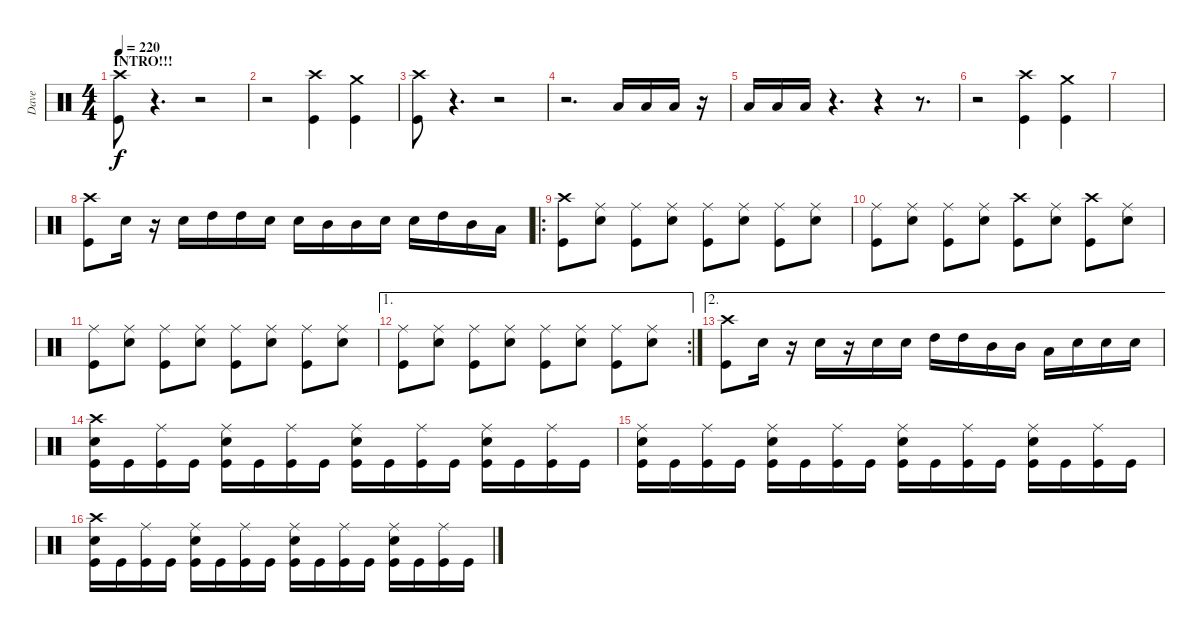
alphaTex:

\track ("Dave" "Dave") {instrument percussion}
\staff {score}
\articulation defaults
\ts (4 4)
\section ("" "INTRO!!!")
\tempo 220
\clef neutral
\ks c
("Crash high (hit)" "Kick (hit)").8{dy f} r.4{d} r.2 |
r.2 ("Crash high (hit)" "Kick (hit)").4 ("Crash medium (hit)" "Kick (hit)").4 |
("Crash high (hit)" "Kick (hit)").8 r.4{d} r.2 |
r.2{d} "Low Floor Tom (hit)".16 "Low Floor Tom (hit)".16 "Low Floor Tom (hit)".16 r.16 |
"Low Floor Tom (hit)".16 "Low Floor Tom (hit)".16 "Low Floor Tom (hit)".16 r.4{d} r.4 r.8{d} |
r.2 ("Crash high (hit)" "Kick (hit)").4 ("Crash medium (hit)" "Kick (hit)").4 |
|
("Crash high (hit)" "Kick (hit)").8 "Snare (hit) 2".16 r.16 "Snare (hit) 2".16 "High Tom (hit)".16 "High Tom (hit)".16 "Snare (hit) 2".16 "Snare (hit) 2".16 "Mid Tom (hit)".16 "Mid Tom (hit)".16 "Snare (hit) 2".16 "Snare (hit) 2".16 "High Tom (hit)".16 "Mid Tom (hit)".16 "Low Tom (hit)".16 |
\ro
("Crash high (hit)" "Kick (hit)").8 ("Ride (middle)" "Snare (hit) 2").8 ("Ride (middle)" "Kick (hit)").8 ("Ride (middle)" "Snare (hit) 2").8 ("Ride (middle)" "Kick (hit)").8 ("Ride (middle)" "Snare (hit) 2").8 ("Ride (middle)" "Kick (hit)").8 ("Ride (middle)" "Snare (hit) 2").8 |
("Ride (middle)" "Kick (hit)").8 ("Ride (middle)" "Snare (hit) 2").8 ("Ride (middle)" "Kick (hit)").8 ("Ride (middle)" "Snare (hit) 2").8 ("Crash high (hit)" "Kick (hit)").8 ("Ride (middle)" "Snare (hit) 2").8 ("Crash high (hit)" "Kick (hit)").8 ("Ride (middle)" "Snare (hit) 2").8 |
("Ride (middle)" "Kick (hit)").8 ("Ride (middle)" "Snare (hit) 2").8 ("Ride (middle)" "Kick (hit)").8 ("Ride (middle)" "Snare (hit) 2").8 ("Ride (middle)" "Kick (hit)").8 ("Ride (middle)" "Snare (hit) 2").8 ("Ride (middle)" "Kick (hit)").8 ("Ride (middle)" "Snare (hit) 2").8 |
\ae 1
\rc 2
("Ride (middle)" "Kick (hit)").8 ("Ride (middle)" "Snare (hit) 2").8 ("Ride (middle)" "Kick (hit)").8 ("Ride (middle)" "Snare (hit) 2").8 ("Ride (middle)" "Kick (hit)").8 ("Ride (middle)" "Snare (hit) 2").8 ("Ride (middle)" "Kick (hit)").8 ("Ride (middle)" "Snare (hit) 2").8 |
\ae 2
("Crash high (hit)" "Kick (hit)").8 "Snare (hit) 2".16 r.16 "Snare (hit) 2".16 r.16 "Snare (hit) 2".16 "Snare (hit) 2".16 "High Tom (hit)".16 "High Tom (hit)".16 "Mid Tom (hit)".16 "Mid Tom (hit)".16 "Low Tom (hit)".16 "Snare (hit) 2".16 "Snare (hit) 2".16 "Snare (hit) 2".16 |
("Crash high (hit)" "Snare (hit) 2" "Kick (hit)").16 "Kick (hit)".16 ("Ride (middle)" "Kick (hit)").16 "Kick (hit)".16 ("Ride (middle)" "Snare (hit) 2" "Kick (hit)").16 "Kick (hit)".16 ("Ride (middle)" "Kick (hit)").16 "Kick (hit)".16 ("Ride (middle)" "Snare (hit) 2" "Kick (hit)").16 "Kick (hit)".16 ("Ride (middle)" "Kick (hit)").16 "Kick (hit)".16 ("Ride (middle)" "Snare (hit) 2" "Kick (hit)").16 "Kick (hit)".16 ("Ride (middle)" "Kick (hit)").16 "Kick (hit)".16 |
("Ride (middle)" "Snare (hit) 2" "Kick (hit)").16 "Kick (hit)".16 ("Ride (middle)" "Kick (hit)").16 "Kick (hit)".16 ("Ride (middle)" "Snare (hit) 2" "Kick (hit)").16 "Kick (hit)".16 ("Ride (middle)" "Kick (hit)").16 "Kick (hit)".16 ("Ride (middle)" "Snare (hit) 2" "Kick (hit)").16 "Kick (hit)".16 ("Ride (middle)" "Kick (hit)").16 "Kick (hit)".16 ("Ride (middle)" "Snare (hit) 2" "Kick (hit)").16 "Kick (hit)".16 ("Ride (middle)" "Kick (hit)").16 "Kick (hit)".16 |
("Crash high (hit)" "Snare (hit) 2" "Kick (hit)").16 "Kick (hit)".16 ("Ride (middle)" "Kick (hit)").16 "Kick (hit)".16 ("Ride (middle)" "Snare (hit) 2" "Kick (hit)").16 "Kick (hit)".16 ("Ride (middle)" "Kick (hit)").16 "Kick (hit)".16 ("Ride (middle)" "Snare (hit) 2" "Kick (hit)").16 "Kick (hit)".16 ("Ride (middle)" "Kick (hit)").16 "Kick (hit)".16 ("Ride (middle)" "Snare (hit) 2" "Kick (hit)").16 "Kick (hit)".16 ("Ride (middle)" "Kick (hit)").16 "Kick (hit)".16
